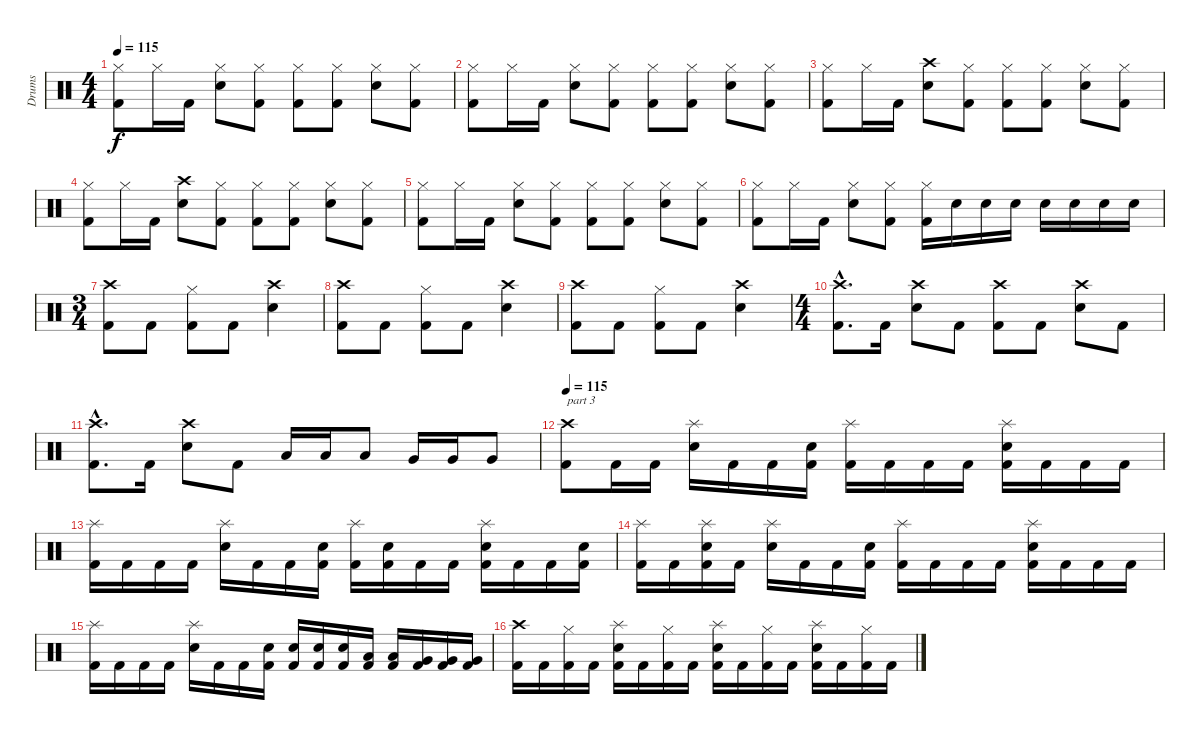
\track ("Drums" "Drums") {instrument percussion}
\staff {score}
\articulation defaults
\ts (4 4)
\tempo 115
\clef neutral
\ks c
("Hi-Hat (closed)" "Kick (hit) 2").8{dy f} "Hi-Hat (closed)".16 "Kick (hit) 2".16 ("Hi-Hat (closed)" "Snare (hit) 2").8 ("Hi-Hat (closed)" "Kick (hit) 2").8 ("Hi-Hat (closed)" "Kick (hit) 2").8 ("Hi-Hat (closed)" "Kick (hit) 2").8 ("Hi-Hat (closed)" "Snare (hit) 2").8 ("Hi-Hat (closed)" "Kick (hit) 2").8 |
("Hi-Hat (closed)" "Kick (hit) 2").8 "Hi-Hat (closed)".16 "Kick (hit) 2".16 ("Hi-Hat (closed)" "Snare (hit) 2").8 ("Hi-Hat (closed)" "Kick (hit) 2").8 ("Hi-Hat (closed)" "Kick (hit) 2").8 ("Hi-Hat (closed)" "Kick (hit) 2").8 ("Hi-Hat (closed)" "Snare (hit) 2").8 ("Hi-Hat (closed)" "Kick (hit) 2").8 |
("Hi-Hat (closed)" "Kick (hit) 2").8 "Hi-Hat (closed)".16 "Kick (hit) 2".16 ("Crash high (hit)" "Snare (hit) 2").8 ("Hi-Hat (closed)" "Kick (hit) 2").8 ("Hi-Hat (closed)" "Kick (hit) 2").8 ("Hi-Hat (closed)" "Kick (hit) 2").8 ("Hi-Hat (closed)" "Snare (hit) 2").8 ("Hi-Hat (closed)" "Kick (hit) 2").8 |
("Hi-Hat (closed)" "Kick (hit) 2").8 "Hi-Hat (closed)".16 "Kick (hit) 2".16 ("Crash high (hit)" "Snare (hit) 2").8 ("Hi-Hat (closed)" "Kick (hit) 2").8 ("Hi-Hat (closed)" "Kick (hit) 2").8 ("Hi-Hat (closed)" "Kick (hit) 2").8 ("Hi-Hat (closed)" "Snare (hit) 2").8 ("Hi-Hat (closed)" "Kick (hit) 2").8 |
("Hi-Hat (closed)" "Kick (hit) 2").8 "Hi-Hat (closed)".16 "Kick (hit) 2".16 ("Hi-Hat (closed)" "Snare (hit) 2").8 ("Hi-Hat (closed)" "Kick (hit) 2").8 ("Hi-Hat (closed)" "Kick (hit) 2").8 ("Hi-Hat (closed)" "Kick (hit) 2").8 ("Hi-Hat (closed)" "Snare (hit) 2").8 ("Hi-Hat (closed)" "Kick (hit) 2").8 |
("Hi-Hat (closed)" "Kick (hit) 2").8 "Hi-Hat (closed)".16 "Kick (hit) 2".16 ("Hi-Hat (closed)" "Snare (hit) 2").8 ("Hi-Hat (closed)" "Kick (hit) 2").8 ("Hi-Hat (closed)" "Kick (hit) 2").16 "Snare (hit) 2".16 "Snare (hit) 2".16 "Snare (hit) 2".16 "Snare (hit) 2".16 "Snare (hit) 2".16 "Snare (hit) 2".16 "Snare (hit) 2".16 |
\ts (3 4)
("Crash high (hit)" "Kick (hit) 2").8 "Kick (hit) 2".8 ("Hi-Hat (closed)" "Kick (hit) 2").8 "Kick (hit) 2".8 ("Crash high (hit)" "Snare (hit) 2").4 |
("Crash high (hit)" "Kick (hit) 2").8 "Kick (hit) 2".8 ("Hi-Hat (closed)" "Kick (hit) 2").8 "Kick (hit) 2".8 ("Crash high (hit)" "Snare (hit) 2").4 |
("Crash high (hit)" "Kick (hit) 2").8 "Kick (hit) 2".8 ("Hi-Hat (closed)" "Kick (hit) 2").8 "Kick (hit) 2".8 ("Crash high (hit)" "Snare (hit) 2").4 |
\ts (4 4)
("Crash high (hit)"{hac} "Kick (hit) 2"{hac}).8{d} "Kick (hit) 2".16 ("Crash high (hit)" "Snare (hit) 2").8 "Kick (hit) 2".8 ("Crash high (hit)" "Kick (hit) 2").8 "Kick (hit) 2".8 ("Crash high (hit)" "Snare (hit) 2").8 "Kick (hit) 2".8 |
("Crash high (hit)"{hac} "Kick (hit) 2"{hac}).8{d} "Kick (hit) 2".16 ("Crash high (hit)" "Snare (hit) 2").8 "Kick (hit) 2".8 "Low Tom (hit)".16 "Low Tom (hit)".16 "Low Tom (hit)".8 "Very Low Tom (hit)".16 "Very Low Tom (hit)".16 "Very Low Tom (hit)".8 |
\tempo 115
("Crash high (hit)" "Kick (hit) 2").8{txt "part 3"} "Kick (hit) 2".16 "Kick (hit) 2".16 ("Splash (hit)" "Snare (hit) 2").16 "Kick (hit) 2".16 "Kick (hit) 2".16 ("Snare (hit) 2" "Kick (hit) 2").16 ("Splash (hit)" "Kick (hit) 2").16 "Kick (hit) 2".16 "Kick (hit) 2".16 "Kick (hit) 2".16 ("Splash (hit)" "Snare (hit) 2" "Kick (hit) 2").16 "Kick (hit) 2".16 "Kick (hit) 2".16 "Kick (hit) 2".16 |
("Splash (hit)" "Kick (hit) 2").16 "Kick (hit) 2".16 "Kick (hit) 2".16 "Kick (hit) 2".16 ("Splash (hit)" "Snare (hit) 2").16 "Kick (hit) 2".16 "Kick (hit) 2".16 ("Snare (hit) 2" "Kick (hit) 2").16 ("Splash (hit)" "Kick (hit) 2").16 ("Snare (hit) 2" "Kick (hit) 2").16 "Kick (hit) 2".16 "Kick (hit) 2".16 ("Splash (hit)" "Snare (hit) 2" "Kick (hit) 2").16 "Kick (hit) 2".16 "Kick (hit) 2".16 ("Snare (hit) 2" "Kick (hit) 2").16 |
("Splash (hit)" "Kick (hit) 2").16 "Kick (hit) 2".16 ("Splash (hit)" "Snare (hit) 2" "Kick (hit) 2").16 "Kick (hit) 2".16 ("Splash (hit)" "Snare (hit) 2").16 "Kick (hit) 2".16 "Kick (hit) 2".16 ("Snare (hit) 2" "Kick (hit) 2").16 ("Splash (hit)" "Kick (hit) 2").16 "Kick (hit) 2".16 "Kick (hit) 2".16 "Kick (hit) 2".16 ("Splash (hit)" "Snare (hit) 2" "Kick (hit) 2").16 "Kick (hit) 2".16 "Kick (hit) 2".16 "Kick (hit) 2".16 |
("Splash (hit)" "Kick (hit) 2").16 "Kick (hit) 2".16 "Kick (hit) 2".16 "Kick (hit) 2".16 ("Splash (hit)" "Snare (hit) 2").16 "Kick (hit) 2".16 "Kick (hit) 2".16 ("Snare (hit) 2" "Kick (hit) 2").16 ("Snare (hit) 2" "Kick (hit) 2").16 ("Snare (hit) 2" "Kick (hit) 2").16 ("Snare (hit) 2" "Kick (hit) 2").16 ("Low Tom (hit)" "Kick (hit) 2").16 ("Low Tom (hit)" "Kick (hit) 2").16 ("Very Low Tom (hit)" "Kick (hit) 2").16 ("Very Low Tom (hit)" "Kick (hit) 2").16 ("Very Low Tom (hit)" "Kick (hit) 2").16 |
("Crash high (hit)" "Kick (hit) 2").16 "Kick (hit) 2".16 ("Hi-Hat (closed)" "Kick (hit) 2").16 "Kick (hit) 2".16 ("Splash (hit)" "Snare (hit) 2" "Kick (hit) 2").16 "Kick (hit) 2".16 ("Hi-Hat (closed)" "Kick (hit) 2").16 "Kick (hit) 2".16 ("Splash (hit)" "Snare (hit) 2" "Kick (hit) 2").16 "Kick (hit) 2".16 ("Hi-Hat (closed)" "Kick (hit) 2").16 "Kick (hit) 2".16 ("Splash (hit)" "Snare (hit) 2" "Kick (hit) 2").16 "Kick (hit) 2".16 ("Hi-Hat (closed)" "Kick (hit) 2").16 "Kick (hit) 2".16
